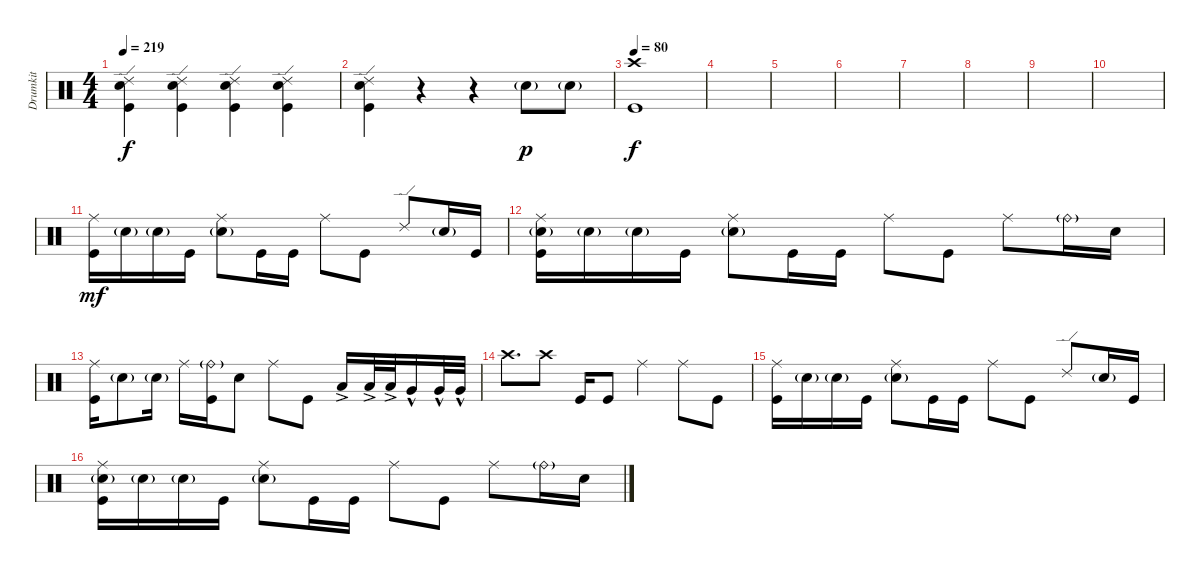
\track ("Drumkit" "Drumkit") {instrument percussion}
\staff {score}
\articulation defaults
\ts (4 4)
\tempo 219
\clef neutral
\ks c
("Snare (hit) 2" "Kick (hit)" "Ride (edge) 2").4{dy f} ("Snare (hit) 2" "Kick (hit)" "Ride (edge) 2").4 ("Snare (hit) 2" "Kick (hit)" "Ride (edge) 2").4 ("Snare (hit) 2" "Kick (hit)" "Ride (edge) 2").4 |
("Snare (hit) 2" "Ride (edge) 2" "Kick (hit)").4 r.4 r.4 "Snare (hit) 2"{g}.8{dy p} "Snare (hit) 2"{g}.8 |
\tempo 80
("Crash high (hit)" "Kick (hit)").1{dy f} |
|
|
|
|
|
|
|
("Kick (hit)" "Ride (middle)").16{dy mf} "Snare (hit) 2"{g}.16 "Snare (hit) 2"{g}.16 "Kick (hit)".16 ("Snare (hit) 2"{g} "Ride (middle)").8 "Kick (hit)".16 "Kick (hit)".16 "Ride (middle)".8 "Kick (hit)".8 "Ride (edge) 2".8 "Snare (hit) 2"{g}.16 "Kick (hit)".16 |
("Kick (hit)" "Ride (middle)" "Snare (hit) 2"{g}).16 "Snare (hit) 2"{g}.16 "Snare (hit) 2"{g}.16 "Kick (hit)".16 ("Snare (hit) 2"{g} "Ride (middle)").8 "Kick (hit)".16 "Kick (hit)".16 "Ride (middle)".8 "Kick (hit)".8 "Ride (middle)".8 "Ride (bell)"{g}.16 "Snare (hit) 2".16 |
("Kick (hit)" "Ride (middle)").16 "Snare (hit) 2"{g}.8 "Snare (hit) 2"{g}.16 "Ride (middle)".16 ("Kick (hit)" "Ride (bell)"{g}).16 "Snare (hit) 2".8 "Ride (middle)".8 "Kick (hit)".8 "Low Tom (hit)"{ac}.16 "Low Tom (hit)"{ac}.32 "Low Tom (hit)"{ac}.32 "Very Low Tom (hit)"{hac}.16 "Very Low Tom (hit)"{hac}.32 "Very Low Tom (hit)"{hac}.32 |
"Crash high (hit)".8{d} "Crash high (hit)".8 "Kick (hit)".16 "Kick (hit)".8 "Ride (middle)".4 "Ride (middle)".8 "Kick (hit)".8 |
("Kick (hit)" "Ride (middle)").16 "Snare (hit) 2"{g}.16 "Snare (hit) 2"{g}.16 "Kick (hit)".16 ("Snare (hit) 2"{g} "Ride (middle)").8 "Kick (hit)".16 "Kick (hit)".16 "Ride (middle)".8 "Kick (hit)".8 "Ride (edge) 2".8 "Snare (hit) 2"{g}.16 "Kick (hit)".16 |
("Kick (hit)" "Ride (middle)" "Snare (hit) 2"{g}).16 "Snare (hit) 2"{g}.16 "Snare (hit) 2"{g}.16 "Kick (hit)".16 ("Snare (hit) 2"{g} "Ride (middle)").8 "Kick (hit)".16 "Kick (hit)".16 "Ride (middle)".8 "Kick (hit)".8 "Ride (middle)".8 "Ride (bell)"{g}.16 "Snare (hit) 2".16
